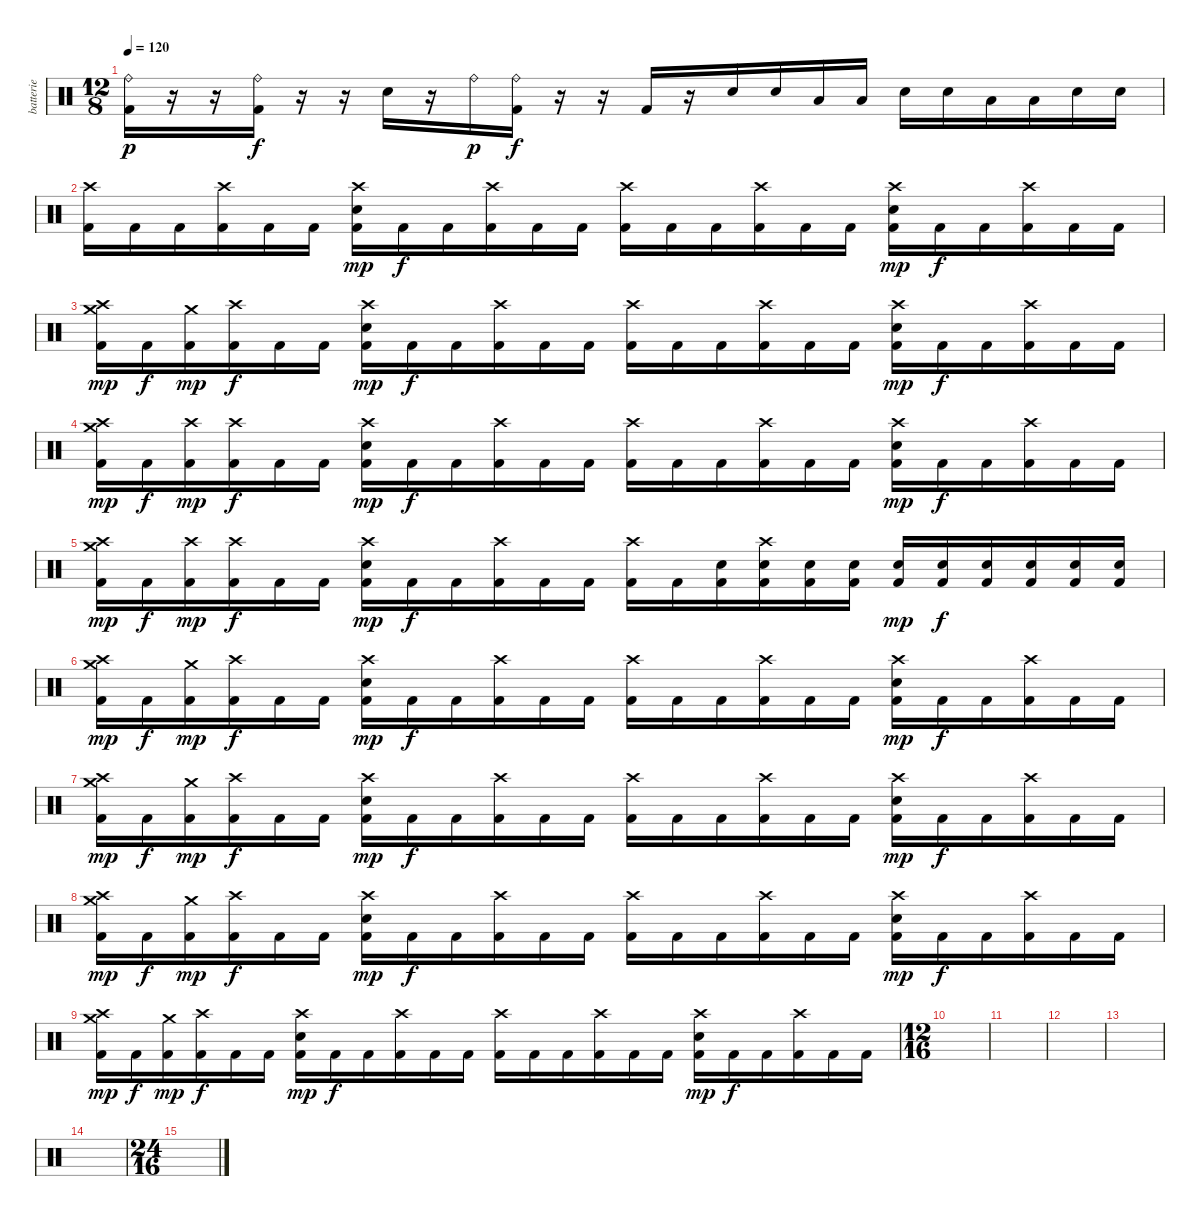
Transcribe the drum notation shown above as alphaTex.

\track ("batterie" "batterie") {instrument percussion}
\staff {score}
\articulation defaults
\ts (12 8)
\tempo 120
\clef neutral
\ks c
("Ride (bell)" "Kick (hit) 2").16{dy p} r.16 r.16 ("Ride (bell)" "Kick (hit) 2").16{dy f} r.16 r.16 "Snare (hit) 2".16 r.16 "Ride (bell)".16{dy p} ("Ride (bell)" "Kick (hit) 2").16{dy f} r.16 r.16 "Kick (hit) 2".16 r.16 "Snare (hit) 2".16 "Snare (hit) 2".16 "Low Tom (hit)".16 "Low Tom (hit)".16 "Snare (hit) 2".16 "Snare (hit) 2".16 "Low Tom (hit)".16 "Low Tom (hit)".16 "Snare (hit) 2".16 "Snare (hit) 2".16 |
("Crash high (hit)" "Kick (hit) 2").16 "Kick (hit) 2".16 "Kick (hit) 2".16 ("Crash high (hit)" "Kick (hit) 2").16 "Kick (hit) 2".16 "Kick (hit) 2".16 ("Crash high (hit)" "Kick (hit) 2" "Snare (hit) 2").16{dy mp} "Kick (hit) 2".16{dy f} "Kick (hit) 2".16 ("Crash high (hit)" "Kick (hit) 2").16 "Kick (hit) 2".16 "Kick (hit) 2".16 ("Crash high (hit)" "Kick (hit) 2").16 "Kick (hit) 2".16 "Kick (hit) 2".16 ("Crash high (hit)" "Kick (hit) 2").16 "Kick (hit) 2".16 "Kick (hit) 2".16 ("Crash high (hit)" "Kick (hit) 2" "Snare (hit) 2").16{dy mp} "Kick (hit) 2".16{dy f} "Kick (hit) 2".16 ("Crash high (hit)" "Kick (hit) 2").16 "Kick (hit) 2".16 "Kick (hit) 2".16 |
("Crash high (hit)" "Kick (hit) 2" "Crash medium (hit)").16{dy mp} "Kick (hit) 2".16{dy f} ("Kick (hit) 2" "Crash medium (hit)").16{dy mp} ("Crash high (hit)" "Kick (hit) 2").16{dy f} "Kick (hit) 2".16 "Kick (hit) 2".16 ("Crash high (hit)" "Kick (hit) 2" "Snare (hit) 2").16{dy mp} "Kick (hit) 2".16{dy f} "Kick (hit) 2".16 ("Crash high (hit)" "Kick (hit) 2").16 "Kick (hit) 2".16 "Kick (hit) 2".16 ("Crash high (hit)" "Kick (hit) 2").16 "Kick (hit) 2".16 "Kick (hit) 2".16 ("Crash high (hit)" "Kick (hit) 2").16 "Kick (hit) 2".16 "Kick (hit) 2".16 ("Crash high (hit)" "Kick (hit) 2" "Snare (hit) 2").16{dy mp} "Kick (hit) 2".16{dy f} "Kick (hit) 2".16 ("Crash high (hit)" "Kick (hit) 2").16 "Kick (hit) 2".16 "Kick (hit) 2".16 |
("Crash high (hit)" "Kick (hit) 2" "Crash medium (hit)").16{dy mp} "Kick (hit) 2".16{dy f} ("Kick (hit) 2" "Crash high (hit)").16{dy mp} ("Crash high (hit)" "Kick (hit) 2").16{dy f} "Kick (hit) 2".16 "Kick (hit) 2".16 ("Crash high (hit)" "Kick (hit) 2" "Snare (hit) 2").16{dy mp} "Kick (hit) 2".16{dy f} "Kick (hit) 2".16 ("Crash high (hit)" "Kick (hit) 2").16 "Kick (hit) 2".16 "Kick (hit) 2".16 ("Crash high (hit)" "Kick (hit) 2").16 "Kick (hit) 2".16 "Kick (hit) 2".16 ("Crash high (hit)" "Kick (hit) 2").16 "Kick (hit) 2".16 "Kick (hit) 2".16 ("Crash high (hit)" "Kick (hit) 2" "Snare (hit) 2").16{dy mp} "Kick (hit) 2".16{dy f} "Kick (hit) 2".16 ("Crash high (hit)" "Kick (hit) 2").16 "Kick (hit) 2".16 "Kick (hit) 2".16 |
("Crash high (hit)" "Kick (hit) 2" "Crash medium (hit)").16{dy mp} "Kick (hit) 2".16{dy f} ("Kick (hit) 2" "Crash high (hit)").16{dy mp} ("Crash high (hit)" "Kick (hit) 2").16{dy f} "Kick (hit) 2".16 "Kick (hit) 2".16 ("Crash high (hit)" "Kick (hit) 2" "Snare (hit) 2").16{dy mp} "Kick (hit) 2".16{dy f} "Kick (hit) 2".16 ("Crash high (hit)" "Kick (hit) 2").16 "Kick (hit) 2".16 "Kick (hit) 2".16 ("Crash high (hit)" "Kick (hit) 2").16 "Kick (hit) 2".16 ("Kick (hit) 2" "Snare (hit) 2").16 ("Crash high (hit)" "Kick (hit) 2" "Snare (hit) 2").16 ("Kick (hit) 2" "Snare (hit) 2").16 ("Kick (hit) 2" "Snare (hit) 2").16 ("Kick (hit) 2" "Snare (hit) 2").16{dy mp} ("Kick (hit) 2" "Snare (hit) 2").16{dy f} ("Kick (hit) 2" "Snare (hit) 2").16 ("Kick (hit) 2" "Snare (hit) 2").16 ("Kick (hit) 2" "Snare (hit) 2").16 ("Kick (hit) 2" "Snare (hit) 2").16 |
("Crash high (hit)" "Kick (hit) 2" "Crash medium (hit)").16{dy mp} "Kick (hit) 2".16{dy f} ("Kick (hit) 2" "Crash medium (hit)").16{dy mp} ("Crash high (hit)" "Kick (hit) 2").16{dy f} "Kick (hit) 2".16 "Kick (hit) 2".16 ("Crash high (hit)" "Kick (hit) 2" "Snare (hit) 2").16{dy mp} "Kick (hit) 2".16{dy f} "Kick (hit) 2".16 ("Crash high (hit)" "Kick (hit) 2").16 "Kick (hit) 2".16 "Kick (hit) 2".16 ("Crash high (hit)" "Kick (hit) 2").16 "Kick (hit) 2".16 "Kick (hit) 2".16 ("Crash high (hit)" "Kick (hit) 2").16 "Kick (hit) 2".16 "Kick (hit) 2".16 ("Crash high (hit)" "Kick (hit) 2" "Snare (hit) 2").16{dy mp} "Kick (hit) 2".16{dy f} "Kick (hit) 2".16 ("Crash high (hit)" "Kick (hit) 2").16 "Kick (hit) 2".16 "Kick (hit) 2".16 |
("Crash high (hit)" "Kick (hit) 2" "Crash medium (hit)").16{dy mp} "Kick (hit) 2".16{dy f} ("Kick (hit) 2" "Crash medium (hit)").16{dy mp} ("Crash high (hit)" "Kick (hit) 2").16{dy f} "Kick (hit) 2".16 "Kick (hit) 2".16 ("Crash high (hit)" "Kick (hit) 2" "Snare (hit) 2").16{dy mp} "Kick (hit) 2".16{dy f} "Kick (hit) 2".16 ("Crash high (hit)" "Kick (hit) 2").16 "Kick (hit) 2".16 "Kick (hit) 2".16 ("Crash high (hit)" "Kick (hit) 2").16 "Kick (hit) 2".16 "Kick (hit) 2".16 ("Crash high (hit)" "Kick (hit) 2").16 "Kick (hit) 2".16 "Kick (hit) 2".16 ("Crash high (hit)" "Kick (hit) 2" "Snare (hit) 2").16{dy mp} "Kick (hit) 2".16{dy f} "Kick (hit) 2".16 ("Crash high (hit)" "Kick (hit) 2").16 "Kick (hit) 2".16 "Kick (hit) 2".16 |
("Crash high (hit)" "Kick (hit) 2" "Crash medium (hit)").16{dy mp} "Kick (hit) 2".16{dy f} ("Kick (hit) 2" "Crash medium (hit)").16{dy mp} ("Crash high (hit)" "Kick (hit) 2").16{dy f} "Kick (hit) 2".16 "Kick (hit) 2".16 ("Crash high (hit)" "Kick (hit) 2" "Snare (hit) 2").16{dy mp} "Kick (hit) 2".16{dy f} "Kick (hit) 2".16 ("Crash high (hit)" "Kick (hit) 2").16 "Kick (hit) 2".16 "Kick (hit) 2".16 ("Crash high (hit)" "Kick (hit) 2").16 "Kick (hit) 2".16 "Kick (hit) 2".16 ("Crash high (hit)" "Kick (hit) 2").16 "Kick (hit) 2".16 "Kick (hit) 2".16 ("Crash high (hit)" "Kick (hit) 2" "Snare (hit) 2").16{dy mp} "Kick (hit) 2".16{dy f} "Kick (hit) 2".16 ("Crash high (hit)" "Kick (hit) 2").16 "Kick (hit) 2".16 "Kick (hit) 2".16 |
("Crash high (hit)" "Kick (hit) 2" "Crash medium (hit)").16{dy mp} "Kick (hit) 2".16{dy f} ("Kick (hit) 2" "Crash medium (hit)").16{dy mp} ("Crash high (hit)" "Kick (hit) 2").16{dy f} "Kick (hit) 2".16 "Kick (hit) 2".16 ("Crash high (hit)" "Kick (hit) 2" "Snare (hit) 2").16{dy mp} "Kick (hit) 2".16{dy f} "Kick (hit) 2".16 ("Crash high (hit)" "Kick (hit) 2").16 "Kick (hit) 2".16 "Kick (hit) 2".16 ("Crash high (hit)" "Kick (hit) 2").16 "Kick (hit) 2".16 "Kick (hit) 2".16 ("Crash high (hit)" "Kick (hit) 2").16 "Kick (hit) 2".16 "Kick (hit) 2".16 ("Crash high (hit)" "Kick (hit) 2" "Snare (hit) 2").16{dy mp} "Kick (hit) 2".16{dy f} "Kick (hit) 2".16 ("Crash high (hit)" "Kick (hit) 2").16 "Kick (hit) 2".16 "Kick (hit) 2".16 |
\ts (12 16)
|
|
|
|
|
\ts (24 16)
